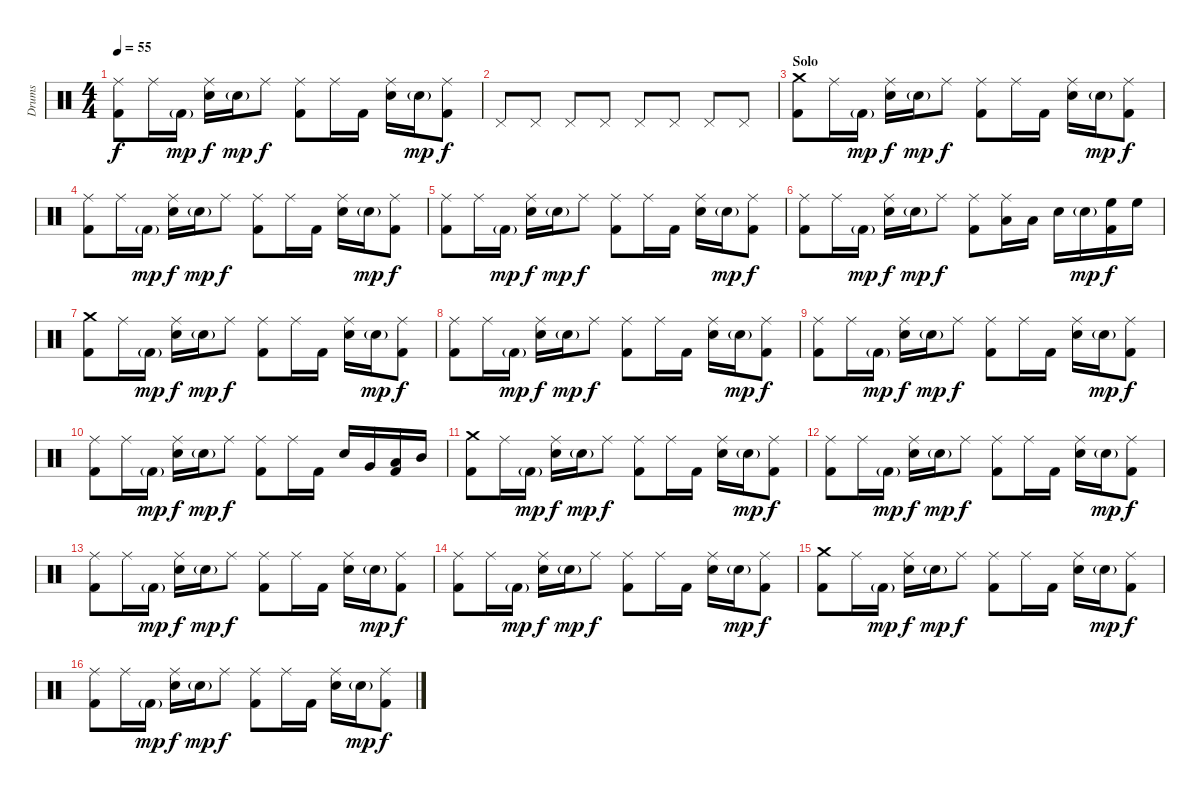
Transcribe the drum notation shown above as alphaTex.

\track ("Drums" "Drums") {instrument percussion}
\staff {score}
\articulation defaults
\ts (4 4)
\tempo 55
\clef neutral
\ks c
("Ride (middle)" "Kick (hit) 2").8{dy f} "Ride (middle)".16 "Kick (hit) 2"{g}.16{dy mp} ("Ride (middle)" "Electric Snare (hit)").16{dy f} "Electric Snare (hit)"{g}.16{dy mp} "Ride (middle)".8{dy f} ("Ride (middle)" "Kick (hit) 2").8 "Ride (middle)".16 "Kick (hit) 2".16 ("Ride (middle)" "Electric Snare (hit)").16 "Electric Snare (hit)"{g}.16{dy mp} ("Ride (middle)" "Kick (hit) 2").8{dy f} |
"Pedal Hi-Hat (hit)".8 "Pedal Hi-Hat (hit)".8 "Pedal Hi-Hat (hit)".8 "Pedal Hi-Hat (hit)".8 "Pedal Hi-Hat (hit)".8 "Pedal Hi-Hat (hit)".8 "Pedal Hi-Hat (hit)".8 "Pedal Hi-Hat (hit)".8 |
\section ("" "Solo")
("Crash medium (hit)" "Kick (hit) 2").8 "Ride (middle)".16 "Kick (hit) 2"{g}.16{dy mp} ("Ride (middle)" "Electric Snare (hit)").16{dy f} "Electric Snare (hit)"{g}.16{dy mp} "Ride (middle)".8{dy f} ("Ride (middle)" "Kick (hit) 2").8 "Ride (middle)".16 "Kick (hit) 2".16 ("Ride (middle)" "Electric Snare (hit)").16 "Electric Snare (hit)"{g}.16{dy mp} ("Ride (middle)" "Kick (hit) 2").8{dy f} |
("Ride (middle)" "Kick (hit) 2").8 "Ride (middle)".16 "Kick (hit) 2"{g}.16{dy mp} ("Ride (middle)" "Electric Snare (hit)").16{dy f} "Electric Snare (hit)"{g}.16{dy mp} "Ride (middle)".8{dy f} ("Ride (middle)" "Kick (hit) 2").8 "Ride (middle)".16 "Kick (hit) 2".16 ("Ride (middle)" "Electric Snare (hit)").16 "Electric Snare (hit)"{g}.16{dy mp} ("Ride (middle)" "Kick (hit) 2").8{dy f} |
("Ride (middle)" "Kick (hit) 2").8 "Ride (middle)".16 "Kick (hit) 2"{g}.16{dy mp} ("Ride (middle)" "Electric Snare (hit)").16{dy f} "Electric Snare (hit)"{g}.16{dy mp} "Ride (middle)".8{dy f} ("Ride (middle)" "Kick (hit) 2").8 "Ride (middle)".16 "Kick (hit) 2".16 ("Ride (middle)" "Electric Snare (hit)").16 "Electric Snare (hit)"{g}.16{dy mp} ("Ride (middle)" "Kick (hit) 2").8{dy f} |
("Ride (middle)" "Kick (hit) 2").8 "Ride (middle)".16 "Kick (hit) 2"{g}.16{dy mp} ("Ride (middle)" "Electric Snare (hit)").16{dy f} "Electric Snare (hit)"{g}.16{dy mp} "Ride (middle)".8{dy f} ("Ride (middle)" "Kick (hit) 2").8 ("Ride (middle)" "Low Tom (hit)").16 "Low Tom (hit)".16 "Electric Snare (hit)".16 "Electric Snare (hit)"{g}.16{dy mp} ("High Floor Tom (hit)" "Kick (hit) 2").16{dy f} "High Floor Tom (hit)".16 |
("Crash medium (hit)" "Kick (hit) 2").8 "Ride (middle)".16 "Kick (hit) 2"{g}.16{dy mp} ("Ride (middle)" "Electric Snare (hit)").16{dy f} "Electric Snare (hit)"{g}.16{dy mp} "Ride (middle)".8{dy f} ("Ride (middle)" "Kick (hit) 2").8 "Ride (middle)".16 "Kick (hit) 2".16 ("Ride (middle)" "Electric Snare (hit)").16 "Electric Snare (hit)"{g}.16{dy mp} ("Ride (middle)" "Kick (hit) 2").8{dy f} |
("Ride (middle)" "Kick (hit) 2").8 "Ride (middle)".16 "Kick (hit) 2"{g}.16{dy mp} ("Ride (middle)" "Electric Snare (hit)").16{dy f} "Electric Snare (hit)"{g}.16{dy mp} "Ride (middle)".8{dy f} ("Ride (middle)" "Kick (hit) 2").8 "Ride (middle)".16 "Kick (hit) 2".16 ("Ride (middle)" "Electric Snare (hit)").16 "Electric Snare (hit)"{g}.16{dy mp} ("Ride (middle)" "Kick (hit) 2").8{dy f} |
("Ride (middle)" "Kick (hit) 2").8 "Ride (middle)".16 "Kick (hit) 2"{g}.16{dy mp} ("Ride (middle)" "Electric Snare (hit)").16{dy f} "Electric Snare (hit)"{g}.16{dy mp} "Ride (middle)".8{dy f} ("Ride (middle)" "Kick (hit) 2").8 "Ride (middle)".16 "Kick (hit) 2".16 ("Ride (middle)" "Electric Snare (hit)").16 "Electric Snare (hit)"{g}.16{dy mp} ("Ride (middle)" "Kick (hit) 2").8{dy f} |
("Ride (middle)" "Kick (hit) 2").8 "Ride (middle)".16 "Kick (hit) 2"{g}.16{dy mp} ("Ride (middle)" "Electric Snare (hit)").16{dy f} "Electric Snare (hit)"{g}.16{dy mp} "Ride (middle)".8{dy f} ("Ride (middle)" "Kick (hit) 2").8 "Ride (middle)".16 "Kick (hit) 2".16 "Electric Snare (hit)".16 "Very Low Tom (hit)".16 ("Low Tom (hit)" "Kick (hit) 2").16 "Mid Tom (hit)".16 |
("Crash medium (hit)" "Kick (hit) 2").8 "Ride (middle)".16 "Kick (hit) 2"{g}.16{dy mp} ("Ride (middle)" "Electric Snare (hit)").16{dy f} "Electric Snare (hit)"{g}.16{dy mp} "Ride (middle)".8{dy f} ("Ride (middle)" "Kick (hit) 2").8 "Ride (middle)".16 "Kick (hit) 2".16 ("Ride (middle)" "Electric Snare (hit)").16 "Electric Snare (hit)"{g}.16{dy mp} ("Ride (middle)" "Kick (hit) 2").8{dy f} |
("Ride (middle)" "Kick (hit) 2").8 "Ride (middle)".16 "Kick (hit) 2"{g}.16{dy mp} ("Ride (middle)" "Electric Snare (hit)").16{dy f} "Electric Snare (hit)"{g}.16{dy mp} "Ride (middle)".8{dy f} ("Ride (middle)" "Kick (hit) 2").8 "Ride (middle)".16 "Kick (hit) 2".16 ("Ride (middle)" "Electric Snare (hit)").16 "Electric Snare (hit)"{g}.16{dy mp} ("Ride (middle)" "Kick (hit) 2").8{dy f} |
("Ride (middle)" "Kick (hit) 2").8 "Ride (middle)".16 "Kick (hit) 2"{g}.16{dy mp} ("Ride (middle)" "Electric Snare (hit)").16{dy f} "Electric Snare (hit)"{g}.16{dy mp} "Ride (middle)".8{dy f} ("Ride (middle)" "Kick (hit) 2").8 "Ride (middle)".16 "Kick (hit) 2".16 ("Ride (middle)" "Electric Snare (hit)").16 "Electric Snare (hit)"{g}.16{dy mp} ("Ride (middle)" "Kick (hit) 2").8{dy f} |
("Ride (middle)" "Kick (hit) 2").8 "Ride (middle)".16 "Kick (hit) 2"{g}.16{dy mp} ("Ride (middle)" "Electric Snare (hit)").16{dy f} "Electric Snare (hit)"{g}.16{dy mp} "Ride (middle)".8{dy f} ("Ride (middle)" "Kick (hit) 2").8 "Ride (middle)".16 "Kick (hit) 2".16 ("Ride (middle)" "Electric Snare (hit)").16 "Electric Snare (hit)"{g}.16{dy mp} ("Ride (middle)" "Kick (hit) 2").8{dy f} |
("Crash medium (hit)" "Kick (hit) 2").8 "Ride (middle)".16 "Kick (hit) 2"{g}.16{dy mp} ("Ride (middle)" "Electric Snare (hit)").16{dy f} "Electric Snare (hit)"{g}.16{dy mp} "Ride (middle)".8{dy f} ("Ride (middle)" "Kick (hit) 2").8 "Ride (middle)".16 "Kick (hit) 2".16 ("Ride (middle)" "Electric Snare (hit)").16 "Electric Snare (hit)"{g}.16{dy mp} ("Ride (middle)" "Kick (hit) 2").8{dy f} |
("Ride (middle)" "Kick (hit) 2").8 "Ride (middle)".16 "Kick (hit) 2"{g}.16{dy mp} ("Ride (middle)" "Electric Snare (hit)").16{dy f} "Electric Snare (hit)"{g}.16{dy mp} "Ride (middle)".8{dy f} ("Ride (middle)" "Kick (hit) 2").8 "Ride (middle)".16 "Kick (hit) 2".16 ("Ride (middle)" "Electric Snare (hit)").16 "Electric Snare (hit)"{g}.16{dy mp} ("Ride (middle)" "Kick (hit) 2").8{dy f}
